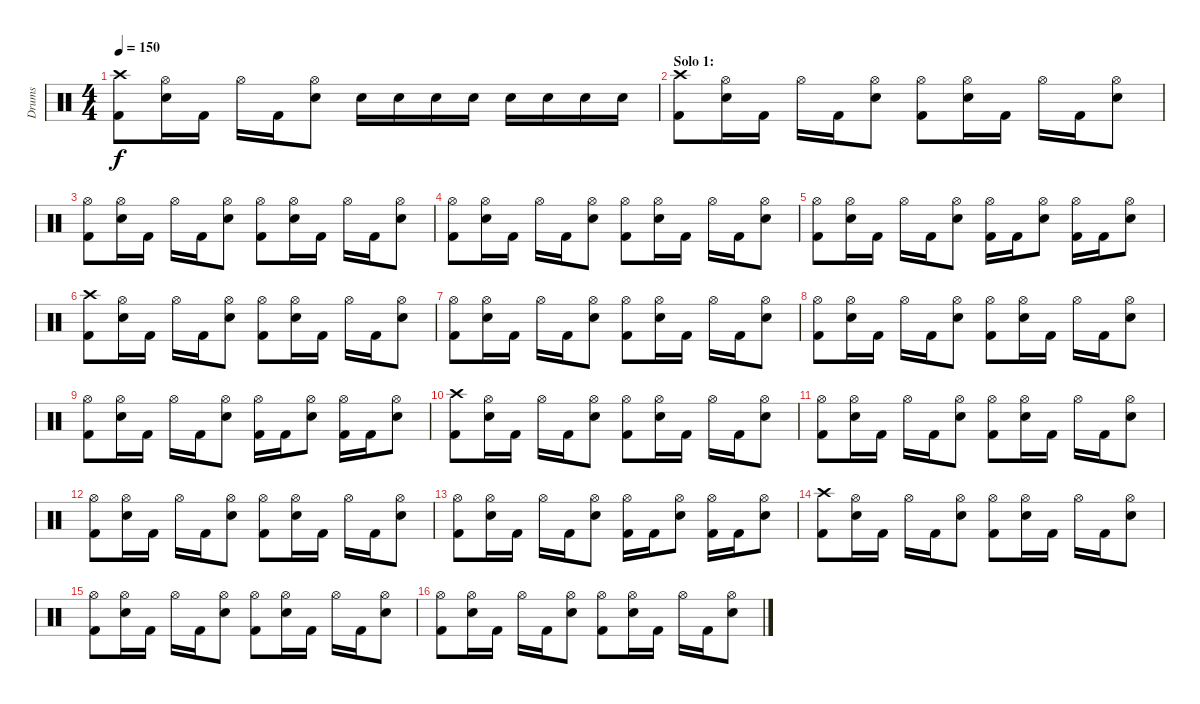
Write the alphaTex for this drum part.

\track ("Drums" "Drums") {instrument percussion}
\staff {score}
\articulation defaults
\ts (4 4)
\tempo 150
\clef neutral
\ks c
("Crash high (hit)" "Kick (hit) 2").8{dy f} ("Hi-Hat (open)" "Snare (hit) 2").16 "Kick (hit) 2".16 "Hi-Hat (open)".16 "Kick (hit) 2".16 ("Hi-Hat (open)" "Snare (hit) 2").8 "Snare (hit) 2".16 "Snare (hit) 2".16 "Snare (hit) 2".16 "Snare (hit) 2".16 "Snare (hit) 2".16 "Snare (hit) 2".16 "Snare (hit) 2".16 "Snare (hit) 2".16 |
\section ("" "Solo 1:")
("Crash high (hit)" "Kick (hit) 2").8 ("Hi-Hat (open)" "Snare (hit) 2").16 "Kick (hit) 2".16 "Hi-Hat (open)".16 "Kick (hit) 2".16 ("Hi-Hat (open)" "Snare (hit) 2").8 ("Hi-Hat (open)" "Kick (hit) 2").8 ("Hi-Hat (open)" "Snare (hit) 2").16 "Kick (hit) 2".16 "Hi-Hat (open)".16 "Kick (hit) 2".16 ("Hi-Hat (open)" "Snare (hit) 2").8 |
("Hi-Hat (open)" "Kick (hit) 2").8 ("Hi-Hat (open)" "Snare (hit) 2").16 "Kick (hit) 2".16 "Hi-Hat (open)".16 "Kick (hit) 2".16 ("Hi-Hat (open)" "Snare (hit) 2").8 ("Hi-Hat (open)" "Kick (hit) 2").8 ("Hi-Hat (open)" "Snare (hit) 2").16 "Kick (hit) 2".16 "Hi-Hat (open)".16 "Kick (hit) 2".16 ("Hi-Hat (open)" "Snare (hit) 2").8 |
("Hi-Hat (open)" "Kick (hit) 2").8 ("Hi-Hat (open)" "Snare (hit) 2").16 "Kick (hit) 2".16 "Hi-Hat (open)".16 "Kick (hit) 2".16 ("Hi-Hat (open)" "Snare (hit) 2").8 ("Hi-Hat (open)" "Kick (hit) 2").8 ("Hi-Hat (open)" "Snare (hit) 2").16 "Kick (hit) 2".16 "Hi-Hat (open)".16 "Kick (hit) 2".16 ("Hi-Hat (open)" "Snare (hit) 2").8 |
("Hi-Hat (open)" "Kick (hit) 2").8 ("Hi-Hat (open)" "Snare (hit) 2").16 "Kick (hit) 2".16 "Hi-Hat (open)".16 "Kick (hit) 2".16 ("Hi-Hat (open)" "Snare (hit) 2").8 ("Hi-Hat (open)" "Kick (hit) 2").16 "Kick (hit) 2".16 ("Hi-Hat (open)" "Snare (hit) 2").8 ("Hi-Hat (open)" "Kick (hit) 2").16 "Kick (hit) 2".16 ("Hi-Hat (open)" "Snare (hit) 2").8 |
("Crash high (hit)" "Kick (hit) 2").8 ("Hi-Hat (open)" "Snare (hit) 2").16 "Kick (hit) 2".16 "Hi-Hat (open)".16 "Kick (hit) 2".16 ("Hi-Hat (open)" "Snare (hit) 2").8 ("Hi-Hat (open)" "Kick (hit) 2").8 ("Hi-Hat (open)" "Snare (hit) 2").16 "Kick (hit) 2".16 "Hi-Hat (open)".16 "Kick (hit) 2".16 ("Hi-Hat (open)" "Snare (hit) 2").8 |
("Hi-Hat (open)" "Kick (hit) 2").8 ("Hi-Hat (open)" "Snare (hit) 2").16 "Kick (hit) 2".16 "Hi-Hat (open)".16 "Kick (hit) 2".16 ("Hi-Hat (open)" "Snare (hit) 2").8 ("Hi-Hat (open)" "Kick (hit) 2").8 ("Hi-Hat (open)" "Snare (hit) 2").16 "Kick (hit) 2".16 "Hi-Hat (open)".16 "Kick (hit) 2".16 ("Hi-Hat (open)" "Snare (hit) 2").8 |
("Hi-Hat (open)" "Kick (hit) 2").8 ("Hi-Hat (open)" "Snare (hit) 2").16 "Kick (hit) 2".16 "Hi-Hat (open)".16 "Kick (hit) 2".16 ("Hi-Hat (open)" "Snare (hit) 2").8 ("Hi-Hat (open)" "Kick (hit) 2").8 ("Hi-Hat (open)" "Snare (hit) 2").16 "Kick (hit) 2".16 "Hi-Hat (open)".16 "Kick (hit) 2".16 ("Hi-Hat (open)" "Snare (hit) 2").8 |
("Hi-Hat (open)" "Kick (hit) 2").8 ("Hi-Hat (open)" "Snare (hit) 2").16 "Kick (hit) 2".16 "Hi-Hat (open)".16 "Kick (hit) 2".16 ("Hi-Hat (open)" "Snare (hit) 2").8 ("Hi-Hat (open)" "Kick (hit) 2").16 "Kick (hit) 2".16 ("Hi-Hat (open)" "Snare (hit) 2").8 ("Hi-Hat (open)" "Kick (hit) 2").16 "Kick (hit) 2".16 ("Hi-Hat (open)" "Snare (hit) 2").8 |
("Crash high (hit)" "Kick (hit) 2").8 ("Hi-Hat (open)" "Snare (hit) 2").16 "Kick (hit) 2".16 "Hi-Hat (open)".16 "Kick (hit) 2".16 ("Hi-Hat (open)" "Snare (hit) 2").8 ("Hi-Hat (open)" "Kick (hit) 2").8 ("Hi-Hat (open)" "Snare (hit) 2").16 "Kick (hit) 2".16 "Hi-Hat (open)".16 "Kick (hit) 2".16 ("Hi-Hat (open)" "Snare (hit) 2").8 |
("Hi-Hat (open)" "Kick (hit) 2").8 ("Hi-Hat (open)" "Snare (hit) 2").16 "Kick (hit) 2".16 "Hi-Hat (open)".16 "Kick (hit) 2".16 ("Hi-Hat (open)" "Snare (hit) 2").8 ("Hi-Hat (open)" "Kick (hit) 2").8 ("Hi-Hat (open)" "Snare (hit) 2").16 "Kick (hit) 2".16 "Hi-Hat (open)".16 "Kick (hit) 2".16 ("Hi-Hat (open)" "Snare (hit) 2").8 |
("Hi-Hat (open)" "Kick (hit) 2").8 ("Hi-Hat (open)" "Snare (hit) 2").16 "Kick (hit) 2".16 "Hi-Hat (open)".16 "Kick (hit) 2".16 ("Hi-Hat (open)" "Snare (hit) 2").8 ("Hi-Hat (open)" "Kick (hit) 2").8 ("Hi-Hat (open)" "Snare (hit) 2").16 "Kick (hit) 2".16 "Hi-Hat (open)".16 "Kick (hit) 2".16 ("Hi-Hat (open)" "Snare (hit) 2").8 |
("Hi-Hat (open)" "Kick (hit) 2").8 ("Hi-Hat (open)" "Snare (hit) 2").16 "Kick (hit) 2".16 "Hi-Hat (open)".16 "Kick (hit) 2".16 ("Hi-Hat (open)" "Snare (hit) 2").8 ("Hi-Hat (open)" "Kick (hit) 2").16 "Kick (hit) 2".16 ("Hi-Hat (open)" "Snare (hit) 2").8 ("Hi-Hat (open)" "Kick (hit) 2").16 "Kick (hit) 2".16 ("Hi-Hat (open)" "Snare (hit) 2").8 |
("Crash high (hit)" "Kick (hit) 2").8 ("Hi-Hat (open)" "Snare (hit) 2").16 "Kick (hit) 2".16 "Hi-Hat (open)".16 "Kick (hit) 2".16 ("Hi-Hat (open)" "Snare (hit) 2").8 ("Hi-Hat (open)" "Kick (hit) 2").8 ("Hi-Hat (open)" "Snare (hit) 2").16 "Kick (hit) 2".16 "Hi-Hat (open)".16 "Kick (hit) 2".16 ("Hi-Hat (open)" "Snare (hit) 2").8 |
("Hi-Hat (open)" "Kick (hit) 2").8 ("Hi-Hat (open)" "Snare (hit) 2").16 "Kick (hit) 2".16 "Hi-Hat (open)".16 "Kick (hit) 2".16 ("Hi-Hat (open)" "Snare (hit) 2").8 ("Hi-Hat (open)" "Kick (hit) 2").8 ("Hi-Hat (open)" "Snare (hit) 2").16 "Kick (hit) 2".16 "Hi-Hat (open)".16 "Kick (hit) 2".16 ("Hi-Hat (open)" "Snare (hit) 2").8 |
("Hi-Hat (open)" "Kick (hit) 2").8 ("Hi-Hat (open)" "Snare (hit) 2").16 "Kick (hit) 2".16 "Hi-Hat (open)".16 "Kick (hit) 2".16 ("Hi-Hat (open)" "Snare (hit) 2").8 ("Hi-Hat (open)" "Kick (hit) 2").8 ("Hi-Hat (open)" "Snare (hit) 2").16 "Kick (hit) 2".16 "Hi-Hat (open)".16 "Kick (hit) 2".16 ("Hi-Hat (open)" "Snare (hit) 2").8
